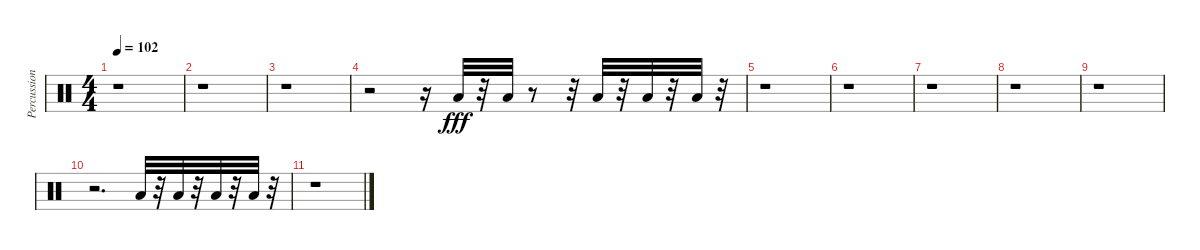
\track ("Percussion" "Percussion") {instrument percussion}
\staff {score}
\articulation defaults
\ts (4 4)
\tempo 102
\clef neutral
\ks c
r.1{dy fff} |
r.1 |
r.1 |
r.2 r.16 "Low Tom (hit)".32 r.32 "Low Floor Tom (hit)".32 r.8 r.32 "Low Tom (hit)".32 r.32 "Low Floor Tom (hit)".32 r.32 "Low Floor Tom (hit)".32 r.32 |
r.1 |
r.1 |
r.1 |
r.1 |
r.1 |
r.2{d} "Low Tom (hit)".32 r.32 "Low Tom (hit)".32 r.32 "Low Floor Tom (hit)".32 r.32 "Low Floor Tom (hit)".32 r.32 |
r.1
